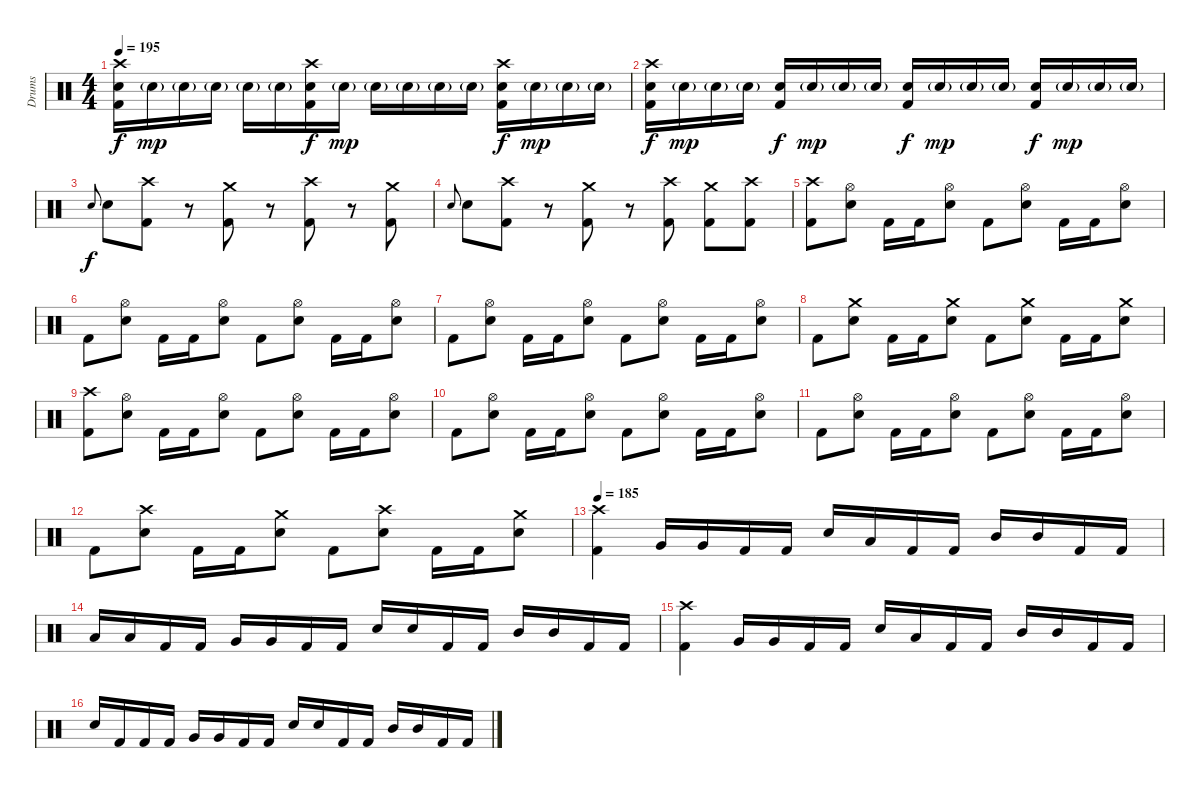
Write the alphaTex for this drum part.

\track ("Drums" "Drums") {instrument percussion}
\staff {score}
\articulation defaults
\ts (4 4)
\tempo 195
\clef neutral
\ks c
("Crash high (hit)" "Electric Snare (hit)" "Kick (hit) 2").16{dy f} "Electric Snare (hit)"{g}.16{dy mp} "Electric Snare (hit)"{g}.16 "Electric Snare (hit)"{g}.16 "Electric Snare (hit)"{g}.16 "Electric Snare (hit)"{g}.16 ("Crash high (hit)" "Electric Snare (hit)" "Kick (hit) 2").16{dy f} "Electric Snare (hit)"{g}.16{dy mp} "Electric Snare (hit)"{g}.16 "Electric Snare (hit)"{g}.16 "Electric Snare (hit)"{g}.16 "Electric Snare (hit)"{g}.16 ("Crash high (hit)" "Electric Snare (hit)" "Kick (hit) 2").16{dy f} "Electric Snare (hit)"{g}.16{dy mp} "Electric Snare (hit)"{g}.16 "Electric Snare (hit)"{g}.16 |
("Crash high (hit)" "Electric Snare (hit)" "Kick (hit) 2").16{dy f} "Electric Snare (hit)"{g}.16{dy mp} "Electric Snare (hit)"{g}.16 "Electric Snare (hit)"{g}.16 ("Electric Snare (hit)" "Kick (hit) 2").16{dy f} "Electric Snare (hit)"{g}.16{dy mp} "Electric Snare (hit)"{g}.16 "Electric Snare (hit)"{g}.16 ("Electric Snare (hit)" "Kick (hit) 2").16{dy f} "Electric Snare (hit)"{g}.16{dy mp} "Electric Snare (hit)"{g}.16 "Electric Snare (hit)"{g}.16 ("Electric Snare (hit)" "Kick (hit) 2").16{dy f} "Electric Snare (hit)"{g}.16{dy mp} "Electric Snare (hit)"{g}.16 "Electric Snare (hit)"{g}.16 |
"Electric Snare (hit)".8{gr onbeat dy f} "Electric Snare (hit)".8 ("Crash high (hit)" "Kick (hit) 2").8 r.8 ("Crash medium (hit)" "Kick (hit) 2").8 r.8 ("Crash high (hit)" "Kick (hit) 2").8 r.8 ("Crash medium (hit)" "Kick (hit) 2").8 |
"Electric Snare (hit)".8{gr onbeat} "Electric Snare (hit)".8 ("Crash high (hit)" "Kick (hit) 2").8 r.8 ("Crash medium (hit)" "Kick (hit) 2").8 r.8 ("Crash high (hit)" "Kick (hit) 2").8 ("Crash medium (hit)" "Kick (hit) 2").8 ("Crash high (hit)" "Kick (hit) 2").8 |
("Crash high (hit)" "Kick (hit) 2").8 ("Hi-Hat (open)" "Electric Snare (hit)").8 "Kick (hit) 2".16 "Kick (hit) 2".16 ("Hi-Hat (open)" "Electric Snare (hit)").8 "Kick (hit) 2".8 ("Hi-Hat (open)" "Electric Snare (hit)").8 "Kick (hit) 2".16 "Kick (hit) 2".16 ("Hi-Hat (open)" "Electric Snare (hit)").8 |
"Kick (hit) 2".8 ("Hi-Hat (open)" "Electric Snare (hit)").8 "Kick (hit) 2".16 "Kick (hit) 2".16 ("Hi-Hat (open)" "Electric Snare (hit)").8 "Kick (hit) 2".8 ("Hi-Hat (open)" "Electric Snare (hit)").8 "Kick (hit) 2".16 "Kick (hit) 2".16 ("Hi-Hat (open)" "Electric Snare (hit)").8 |
"Kick (hit) 2".8 ("Hi-Hat (open)" "Electric Snare (hit)").8 "Kick (hit) 2".16 "Kick (hit) 2".16 ("Hi-Hat (open)" "Electric Snare (hit)").8 "Kick (hit) 2".8 ("Hi-Hat (open)" "Electric Snare (hit)").8 "Kick (hit) 2".16 "Kick (hit) 2".16 ("Hi-Hat (open)" "Electric Snare (hit)").8 |
"Kick (hit) 2".8 ("Crash medium (hit)" "Electric Snare (hit)").8 "Kick (hit) 2".16 "Kick (hit) 2".16 ("Crash medium (hit)" "Electric Snare (hit)").8 "Kick (hit) 2".8 ("Crash medium (hit)" "Electric Snare (hit)").8 "Kick (hit) 2".16 "Kick (hit) 2".16 ("Crash medium (hit)" "Electric Snare (hit)").8 |
("Crash high (hit)" "Kick (hit) 2").8 ("Hi-Hat (open)" "Electric Snare (hit)").8 "Kick (hit) 2".16 "Kick (hit) 2".16 ("Hi-Hat (open)" "Electric Snare (hit)").8 "Kick (hit) 2".8 ("Hi-Hat (open)" "Electric Snare (hit)").8 "Kick (hit) 2".16 "Kick (hit) 2".16 ("Hi-Hat (open)" "Electric Snare (hit)").8 |
"Kick (hit) 2".8 ("Hi-Hat (open)" "Electric Snare (hit)").8 "Kick (hit) 2".16 "Kick (hit) 2".16 ("Hi-Hat (open)" "Electric Snare (hit)").8 "Kick (hit) 2".8 ("Hi-Hat (open)" "Electric Snare (hit)").8 "Kick (hit) 2".16 "Kick (hit) 2".16 ("Hi-Hat (open)" "Electric Snare (hit)").8 |
"Kick (hit) 2".8 ("Hi-Hat (open)" "Electric Snare (hit)").8 "Kick (hit) 2".16 "Kick (hit) 2".16 ("Hi-Hat (open)" "Electric Snare (hit)").8 "Kick (hit) 2".8 ("Hi-Hat (open)" "Electric Snare (hit)").8 "Kick (hit) 2".16 "Kick (hit) 2".16 ("Hi-Hat (open)" "Electric Snare (hit)").8 |
"Kick (hit) 2".8 ("Crash high (hit)" "Electric Snare (hit)").8 "Kick (hit) 2".16 "Kick (hit) 2".16 ("Crash medium (hit)" "Electric Snare (hit)").8 "Kick (hit) 2".8 ("Crash high (hit)" "Electric Snare (hit)").8 "Kick (hit) 2".16 "Kick (hit) 2".16 ("Crash medium (hit)" "Electric Snare (hit)").8 |
\tempo 185
("Crash high (hit)" "Kick (hit) 2").4 "Very Low Tom (hit)".16 "Very Low Tom (hit)".16 "Kick (hit) 2".16 "Kick (hit) 2".16 "Electric Snare (hit)".16 "Low Tom (hit)".16 "Kick (hit) 2".16 "Kick (hit) 2".16 "Mid Tom (hit)".16 "Mid Tom (hit)".16 "Kick (hit) 2".16 "Kick (hit) 2".16 |
"Low Tom (hit)".16 "Low Tom (hit)".16 "Kick (hit) 2".16 "Kick (hit) 2".16 "Very Low Tom (hit)".16 "Very Low Tom (hit)".16 "Kick (hit) 2".16 "Kick (hit) 2".16 "Electric Snare (hit)".16 "Electric Snare (hit)".16 "Kick (hit) 2".16 "Kick (hit) 2".16 "Mid Tom (hit)".16 "Mid Tom (hit)".16 "Kick (hit) 2".16 "Kick (hit) 2".16 |
("Crash high (hit)" "Kick (hit) 2").4 "Very Low Tom (hit)".16 "Very Low Tom (hit)".16 "Kick (hit) 2".16 "Kick (hit) 2".16 "Electric Snare (hit)".16 "Low Tom (hit)".16 "Kick (hit) 2".16 "Kick (hit) 2".16 "Mid Tom (hit)".16 "Mid Tom (hit)".16 "Kick (hit) 2".16 "Kick (hit) 2".16 |
"Electric Snare (hit)".16 "Kick (hit) 2".16 "Kick (hit) 2".16 "Kick (hit) 2".16 "Very Low Tom (hit)".16 "Very Low Tom (hit)".16 "Kick (hit) 2".16 "Kick (hit) 2".16 "Electric Snare (hit)".16 "Electric Snare (hit)".16 "Kick (hit) 2".16 "Kick (hit) 2".16 "Mid Tom (hit)".16 "Mid Tom (hit)".16 "Kick (hit) 2".16 "Kick (hit) 2".16
